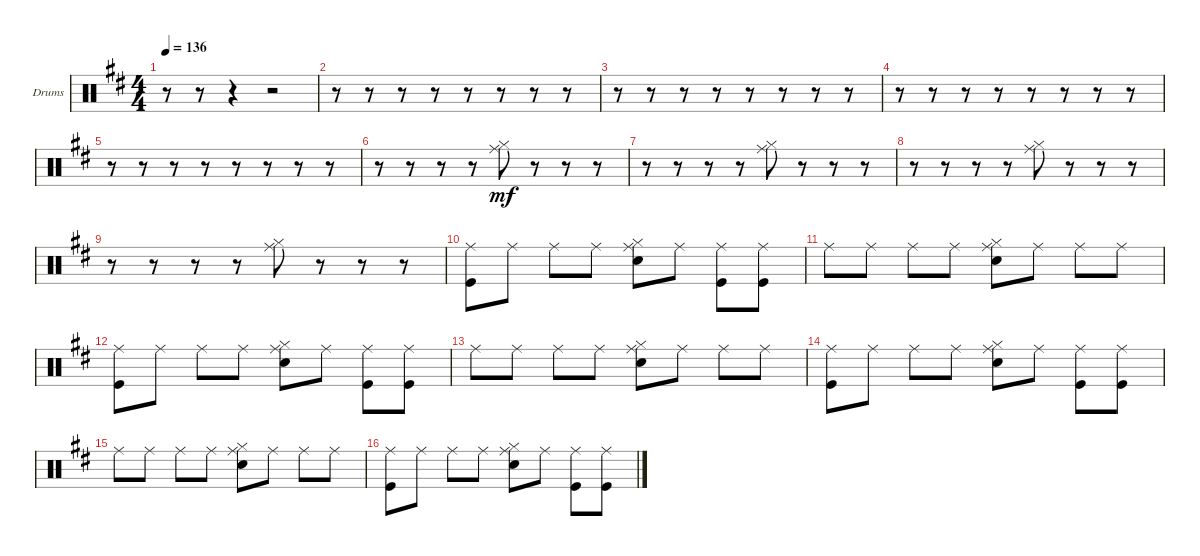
\defaultSystemsLayout 4
\bracketExtendMode groupsimilarinstruments
\firstSystemTrackNameOrientation horizontal
\otherSystemsTrackNameOrientation horizontal
\track ("Greg Bissonette Drums" "Drums") {instrument percussion}
\staff {score}
\articulation defaults
\ts (4 4)
\tempo 136
\clef neutral
\scale
0.517241
\ks d
r.8{dy mf} r.8 r.4 r.2 |
\scale
0.241379 r.8 r.8 r.8 r.8 r.8 r.8 r.8 r.8 |
\scale
0.241379 r.8 r.8 r.8 r.8 r.8 r.8 r.8 r.8 |
\scale
0.333333 r.8 r.8 r.8 r.8 r.8 r.8 r.8 r.8 |
\scale
0.333333 r.8 r.8 r.8 r.8 r.8 r.8 r.8 r.8 |
\scale
0.333333 r.8 r.8 r.8 r.8 ("Hi-Hat (closed)" "Ride (middle)").8 r.8 r.8 r.8 |
\scale
0.333333 r.8 r.8 r.8 r.8 ("Hi-Hat (closed)" "Ride (middle)").8 r.8 r.8 r.8 |
\scale
0.333333 r.8 r.8 r.8 r.8 ("Hi-Hat (closed)" "Ride (middle)").8 r.8 r.8 r.8 |
\scale
0.333333 r.8 r.8 r.8 r.8 ("Hi-Hat (closed)" "Ride (middle)").8 r.8 r.8 r.8 |
\scale
0.333333 ("Kick (hit)" "Ride (middle)").8 "Ride (middle)".8 "Ride (middle)".8 "Ride (middle)".8 ("Snare (hit) 2" "Hi-Hat (closed)" "Ride (middle)").8 "Ride (middle)".8 ("Kick (hit)" "Ride (middle)").8 ("Kick (hit)" "Ride (middle)").8 |
\scale
0.333333 "Ride (middle)".8 "Ride (middle)".8 "Ride (middle)".8 "Ride (middle)".8 ("Snare (hit) 2" "Hi-Hat (closed)" "Ride (middle)").8 "Ride (middle)".8 "Ride (middle)".8 "Ride (middle)".8 |
\scale
0.333333 ("Kick (hit)" "Ride (middle)").8 "Ride (middle)".8 "Ride (middle)".8 "Ride (middle)".8 ("Snare (hit) 2" "Hi-Hat (closed)" "Ride (middle)").8 "Ride (middle)".8 ("Kick (hit)" "Ride (middle)").8 ("Kick (hit)" "Ride (middle)").8 |
\scale
0.333333 "Ride (middle)".8 "Ride (middle)".8 "Ride (middle)".8 "Ride (middle)".8 ("Snare (hit) 2" "Hi-Hat (closed)" "Ride (middle)").8 "Ride (middle)".8 "Ride (middle)".8 "Ride (middle)".8 |
\scale
0.333333 ("Kick (hit)" "Ride (middle)").8 "Ride (middle)".8 "Ride (middle)".8 "Ride (middle)".8 ("Snare (hit) 2" "Hi-Hat (closed)" "Ride (middle)").8 "Ride (middle)".8 ("Kick (hit)" "Ride (middle)").8 ("Kick (hit)" "Ride (middle)").8 |
\scale
0.333333 "Ride (middle)".8 "Ride (middle)".8 "Ride (middle)".8 "Ride (middle)".8 ("Snare (hit) 2" "Hi-Hat (closed)" "Ride (middle)").8 "Ride (middle)".8 "Ride (middle)".8 "Ride (middle)".8 |
\scale
0.333333 ("Kick (hit)" "Ride (middle)").8 "Ride (middle)".8 "Ride (middle)".8 "Ride (middle)".8 ("Snare (hit) 2" "Hi-Hat (closed)" "Ride (middle)").8 "Ride (middle)".8 ("Kick (hit)" "Ride (middle)").8 ("Kick (hit)" "Ride (middle)").8
